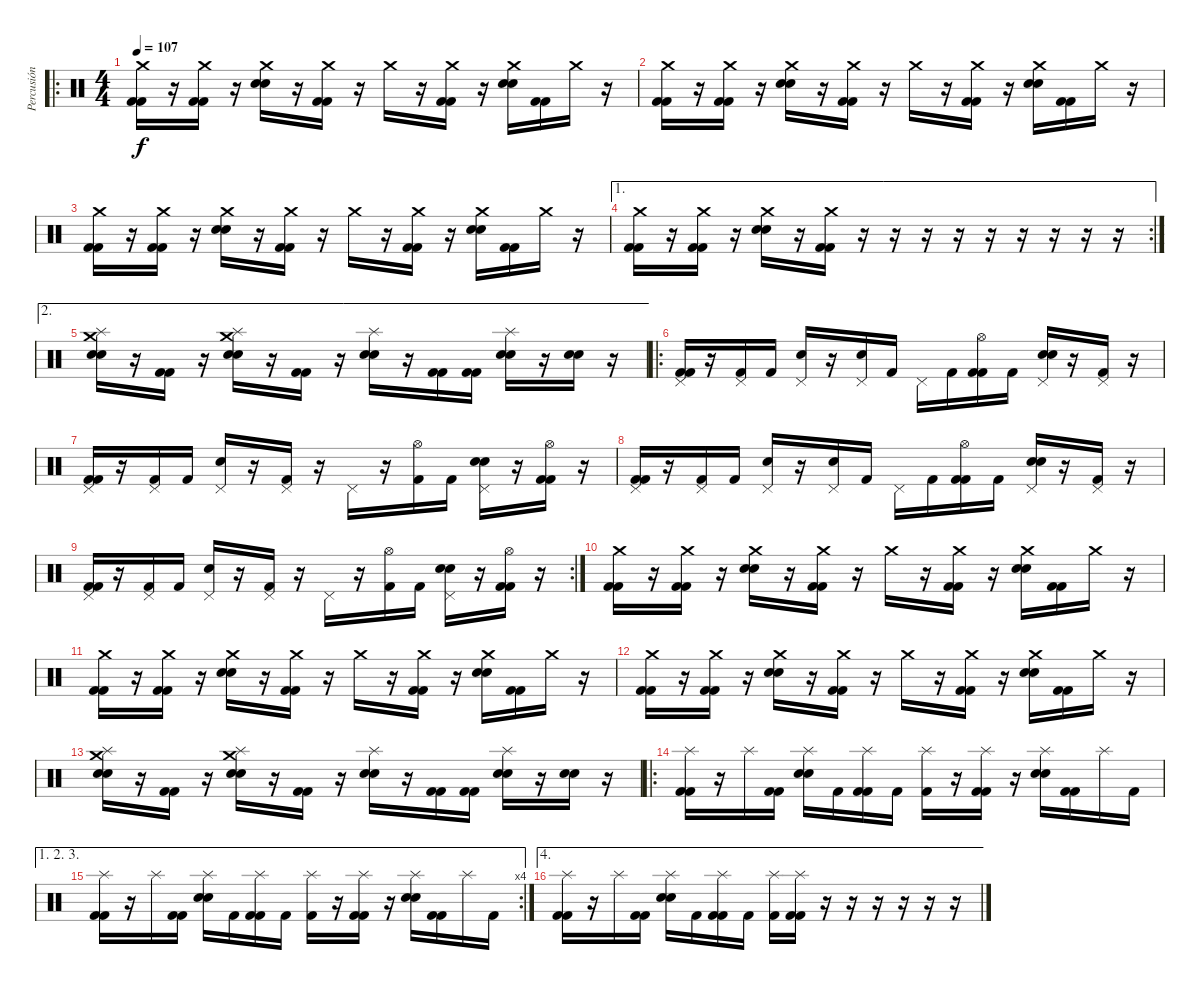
\track ("Percusión" "Percusión") {instrument percussion}
\staff {score}
\articulation defaults
\ro
\ts (4 4)
\tempo 107
\clef neutral
\ks c
("Crash medium (hit)" "Kick (hit) 2" "Kick (hit) 2").16{dy f} r.16 ("Crash medium (hit)" "Kick (hit) 2" "Kick (hit) 2").16 r.16 ("Crash medium (hit)" "Electric Snare (hit)" "Electric Snare (hit)").16 r.16 ("Crash medium (hit)" "Kick (hit) 2" "Kick (hit) 2").16 r.16 "Crash medium (hit)".16 r.16 ("Crash medium (hit)" "Kick (hit) 2" "Kick (hit) 2").16 r.16 ("Crash medium (hit)" "Electric Snare (hit)" "Electric Snare (hit)").16 ("Kick (hit) 2" "Kick (hit) 2").16 "Crash medium (hit)".16 r.16 |
("Crash medium (hit)" "Kick (hit) 2" "Kick (hit) 2").16 r.16 ("Crash medium (hit)" "Kick (hit) 2" "Kick (hit) 2").16 r.16 ("Crash medium (hit)" "Electric Snare (hit)" "Electric Snare (hit)").16 r.16 ("Crash medium (hit)" "Kick (hit) 2" "Kick (hit) 2").16 r.16 "Crash medium (hit)".16 r.16 ("Crash medium (hit)" "Kick (hit) 2" "Kick (hit) 2").16 r.16 ("Crash medium (hit)" "Electric Snare (hit)" "Electric Snare (hit)").16 ("Kick (hit) 2" "Kick (hit) 2").16 "Crash medium (hit)".16 r.16 |
("Crash medium (hit)" "Kick (hit) 2" "Kick (hit) 2").16 r.16 ("Crash medium (hit)" "Kick (hit) 2" "Kick (hit) 2").16 r.16 ("Crash medium (hit)" "Electric Snare (hit)" "Electric Snare (hit)").16 r.16 ("Crash medium (hit)" "Kick (hit) 2" "Kick (hit) 2").16 r.16 "Crash medium (hit)".16 r.16 ("Crash medium (hit)" "Kick (hit) 2" "Kick (hit) 2").16 r.16 ("Crash medium (hit)" "Electric Snare (hit)" "Electric Snare (hit)").16 ("Kick (hit) 2" "Kick (hit) 2").16 "Crash medium (hit)".16 r.16 |
\ae 1
\rc 2
("Crash medium (hit)" "Kick (hit) 2" "Kick (hit) 2").16 r.16 ("Crash medium (hit)" "Kick (hit) 2" "Kick (hit) 2").16 r.16 ("Crash medium (hit)" "Electric Snare (hit)" "Electric Snare (hit)").16 r.16 ("Crash medium (hit)" "Kick (hit) 2" "Kick (hit) 2").16 r.16 r.16 r.16 r.16 r.16 r.16 r.16 r.16 r.16 |
\ae 2
("Crash medium (hit)" "Splash (hit)" "Electric Snare (hit)" "Electric Snare (hit)").16 r.16 ("Kick (hit) 2" "Kick (hit) 2").16 r.16 ("Crash medium (hit)" "Splash (hit)" "Electric Snare (hit)" "Electric Snare (hit)").16 r.16 ("Kick (hit) 2" "Kick (hit) 2").16 r.16 ("Splash (hit)" "Electric Snare (hit)" "Electric Snare (hit)").16 r.16 ("Kick (hit) 2" "Kick (hit) 2").16 ("Kick (hit) 2" "Kick (hit) 2").16 ("Splash (hit)" "Electric Snare (hit)" "Electric Snare (hit)").16 r.16 ("Electric Snare (hit)" "Electric Snare (hit)").16 r.16 |
\ro
("Pedal Hi-Hat (hit)" "Kick (hit) 2" "Kick (hit) 2").16 r.16 ("Pedal Hi-Hat (hit)" "Kick (hit) 2").16 "Kick (hit) 2".16 ("Pedal Hi-Hat (hit)" "Electric Snare (hit)").16 r.16 ("Pedal Hi-Hat (hit)" "Electric Snare (hit)").16 "Kick (hit) 2".16 "Pedal Hi-Hat (hit)".16 "Kick (hit) 2".16 ("Hi-Hat (open)" "Kick (hit) 2" "Kick (hit) 2").16 "Kick (hit) 2".16 ("Pedal Hi-Hat (hit)" "Electric Snare (hit)" "Electric Snare (hit)").16 r.16 ("Pedal Hi-Hat (hit)" "Kick (hit) 2").16 r.16 |
("Pedal Hi-Hat (hit)" "Kick (hit) 2" "Kick (hit) 2").16 r.16 ("Pedal Hi-Hat (hit)" "Kick (hit) 2").16 "Kick (hit) 2".16 ("Pedal Hi-Hat (hit)" "Electric Snare (hit)").16 r.16 ("Pedal Hi-Hat (hit)" "Kick (hit) 2").16 r.16 "Pedal Hi-Hat (hit)".16 r.16 ("Hi-Hat (open)" "Kick (hit) 2").16 "Kick (hit) 2".16 ("Pedal Hi-Hat (hit)" "Electric Snare (hit)" "Electric Snare (hit)").16 r.16 ("Hi-Hat (open)" "Kick (hit) 2" "Kick (hit) 2").16 r.16 |
("Pedal Hi-Hat (hit)" "Kick (hit) 2" "Kick (hit) 2").16 r.16 ("Pedal Hi-Hat (hit)" "Kick (hit) 2").16 "Kick (hit) 2".16 ("Pedal Hi-Hat (hit)" "Electric Snare (hit)").16 r.16 ("Pedal Hi-Hat (hit)" "Electric Snare (hit)").16 "Kick (hit) 2".16 "Pedal Hi-Hat (hit)".16 "Kick (hit) 2".16 ("Hi-Hat (open)" "Kick (hit) 2" "Kick (hit) 2").16 "Kick (hit) 2".16 ("Pedal Hi-Hat (hit)" "Electric Snare (hit)" "Electric Snare (hit)").16 r.16 ("Pedal Hi-Hat (hit)" "Kick (hit) 2").16 r.16 |
\rc 2
("Pedal Hi-Hat (hit)" "Kick (hit) 2" "Kick (hit) 2").16 r.16 ("Pedal Hi-Hat (hit)" "Kick (hit) 2").16 "Kick (hit) 2".16 ("Pedal Hi-Hat (hit)" "Electric Snare (hit)").16 r.16 ("Pedal Hi-Hat (hit)" "Kick (hit) 2").16 r.16 "Pedal Hi-Hat (hit)".16 r.16 ("Hi-Hat (open)" "Kick (hit) 2").16 "Kick (hit) 2".16 ("Pedal Hi-Hat (hit)" "Electric Snare (hit)" "Electric Snare (hit)").16 r.16 ("Hi-Hat (open)" "Kick (hit) 2" "Kick (hit) 2").16 r.16 |
("Crash medium (hit)" "Kick (hit) 2" "Kick (hit) 2").16 r.16 ("Crash medium (hit)" "Kick (hit) 2" "Kick (hit) 2").16 r.16 ("Crash medium (hit)" "Electric Snare (hit)" "Electric Snare (hit)").16 r.16 ("Crash medium (hit)" "Kick (hit) 2" "Kick (hit) 2").16 r.16 "Crash medium (hit)".16 r.16 ("Crash medium (hit)" "Kick (hit) 2" "Kick (hit) 2").16 r.16 ("Crash medium (hit)" "Electric Snare (hit)" "Electric Snare (hit)").16 ("Kick (hit) 2" "Kick (hit) 2").16 "Crash medium (hit)".16 r.16 |
("Crash medium (hit)" "Kick (hit) 2" "Kick (hit) 2").16 r.16 ("Crash medium (hit)" "Kick (hit) 2" "Kick (hit) 2").16 r.16 ("Crash medium (hit)" "Electric Snare (hit)" "Electric Snare (hit)").16 r.16 ("Crash medium (hit)" "Kick (hit) 2" "Kick (hit) 2").16 r.16 "Crash medium (hit)".16 r.16 ("Crash medium (hit)" "Kick (hit) 2" "Kick (hit) 2").16 r.16 ("Crash medium (hit)" "Electric Snare (hit)" "Electric Snare (hit)").16 ("Kick (hit) 2" "Kick (hit) 2").16 "Crash medium (hit)".16 r.16 |
("Crash medium (hit)" "Kick (hit) 2" "Kick (hit) 2").16 r.16 ("Crash medium (hit)" "Kick (hit) 2" "Kick (hit) 2").16 r.16 ("Crash medium (hit)" "Electric Snare (hit)" "Electric Snare (hit)").16 r.16 ("Crash medium (hit)" "Kick (hit) 2" "Kick (hit) 2").16 r.16 "Crash medium (hit)".16 r.16 ("Crash medium (hit)" "Kick (hit) 2" "Kick (hit) 2").16 r.16 ("Crash medium (hit)" "Electric Snare (hit)" "Electric Snare (hit)").16 ("Kick (hit) 2" "Kick (hit) 2").16 "Crash medium (hit)".16 r.16 |
("Crash medium (hit)" "Splash (hit)" "Electric Snare (hit)" "Electric Snare (hit)").16 r.16 ("Kick (hit) 2" "Kick (hit) 2").16 r.16 ("Crash medium (hit)" "Splash (hit)" "Electric Snare (hit)" "Electric Snare (hit)").16 r.16 ("Kick (hit) 2" "Kick (hit) 2").16 r.16 ("Splash (hit)" "Electric Snare (hit)" "Electric Snare (hit)").16 r.16 ("Kick (hit) 2" "Kick (hit) 2").16 ("Kick (hit) 2" "Kick (hit) 2").16 ("Splash (hit)" "Electric Snare (hit)" "Electric Snare (hit)").16 r.16 ("Electric Snare (hit)" "Electric Snare (hit)").16 r.16 |
\ro
("Splash (hit)" "Kick (hit) 2" "Kick (hit) 2").16 r.16 "Splash (hit)".16 ("Kick (hit) 2" "Kick (hit) 2").16 ("Splash (hit)" "Electric Snare (hit)" "Electric Snare (hit)").16 "Kick (hit) 2".16 ("Splash (hit)" "Kick (hit) 2" "Kick (hit) 2").16 "Kick (hit) 2".16 ("Splash (hit)" "Kick (hit) 2").16 r.16 ("Splash (hit)" "Kick (hit) 2" "Kick (hit) 2").16 r.16 ("Splash (hit)" "Electric Snare (hit)" "Electric Snare (hit)").16 ("Kick (hit) 2" "Kick (hit) 2").16 "Splash (hit)".16 "Kick (hit) 2".16 |
\ae (1 2 3)
\rc 4
("Splash (hit)" "Kick (hit) 2" "Kick (hit) 2").16 r.16 "Splash (hit)".16 ("Kick (hit) 2" "Kick (hit) 2").16 ("Splash (hit)" "Electric Snare (hit)" "Electric Snare (hit)").16 "Kick (hit) 2".16 ("Splash (hit)" "Kick (hit) 2" "Kick (hit) 2").16 "Kick (hit) 2".16 ("Splash (hit)" "Kick (hit) 2").16 r.16 ("Splash (hit)" "Kick (hit) 2" "Kick (hit) 2").16 r.16 ("Splash (hit)" "Electric Snare (hit)" "Electric Snare (hit)").16 ("Kick (hit) 2" "Kick (hit) 2").16 "Splash (hit)".16 "Kick (hit) 2".16 |
\ae 4
("Splash (hit)" "Kick (hit) 2" "Kick (hit) 2").16 r.16 "Splash (hit)".16 ("Kick (hit) 2" "Kick (hit) 2").16 ("Splash (hit)" "Electric Snare (hit)" "Electric Snare (hit)").16 "Kick (hit) 2".16 ("Splash (hit)" "Kick (hit) 2" "Kick (hit) 2").16 "Kick (hit) 2".16 ("Splash (hit)" "Kick (hit) 2").16 ("Splash (hit)" "Kick (hit) 2" "Kick (hit) 2").16 r.16 r.16 r.16 r.16 r.16 r.16
